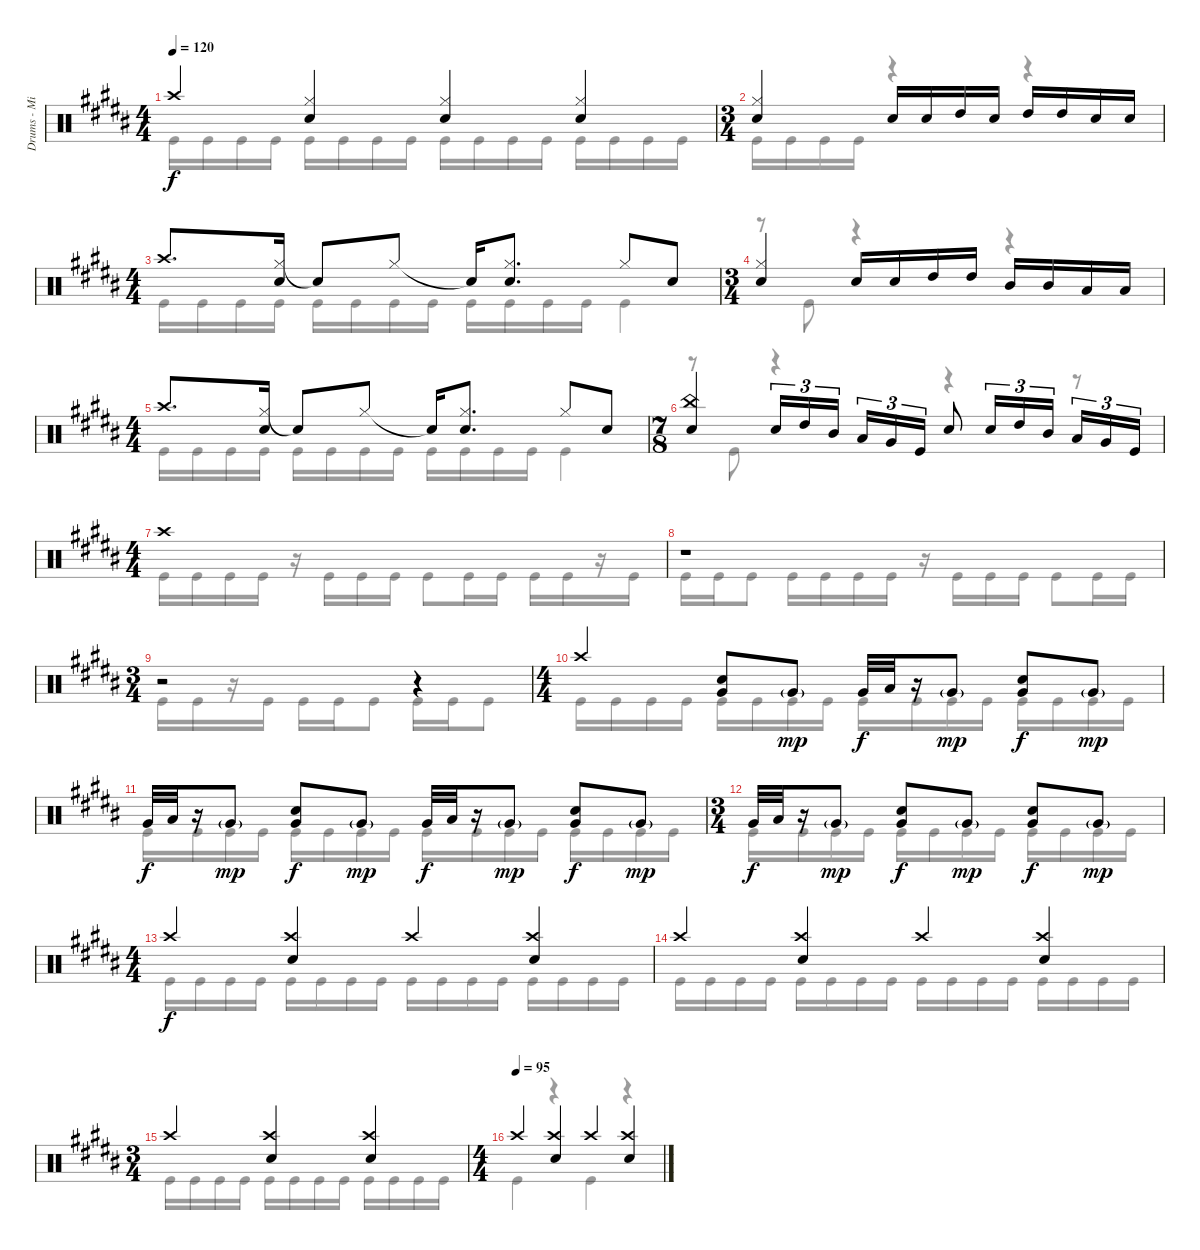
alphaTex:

\track ("Drums - Mike Portnoy" "Drums - Mi") {instrument percussion}
\staff {score}
\articulation defaults
\voice
\ts (4 4)
\tempo 120
\clef neutral
\ks b "Crash high (hit)".4{dy f}
("Hi-Hat (closed)" "Snare (hit) 2").4 ("Hi-Hat (closed)" "Snare (hit) 2").4 ("Hi-Hat (closed)" "Snare (hit) 2").4 |
\ts (3 4)
("Hi-Hat (closed)" "Snare (hit) 2").4 "Snare (hit) 2".16 "Snare (hit) 2".16 "High Tom (hit)".16 "Snare (hit) 2".16 "High Tom (hit)".16 "High Tom (hit)".16 "Snare (hit) 2".16 "Snare (hit) 2".16 |
\ts (4 4)
"Crash high (hit)".8{d} ("Hi-Hat (closed)" "Snare (hit) 2").16 "Snare (hit)"{t}.8 "Hi-Hat (closed)".8 "Snare (hit)"{t}.16 ("Hi-Hat (closed)" "Snare (hit) 2").8{d} "Hi-Hat (closed)".8 "Snare (hit) 2".8 |
\ts (3 4)
("Hi-Hat (closed)" "Snare (hit) 2").4 "Snare (hit) 2".16 "Snare (hit) 2".16 "High Tom (hit)".16 "High Tom (hit)".16 "Mid Tom (hit)".16 "Mid Tom (hit)".16 "Low Tom (hit)".16 "Low Tom (hit)".16 |
\ts (4 4)
"Crash high (hit)".8{d} ("Hi-Hat (closed)" "Snare (hit) 2").16 "Snare (hit)"{t}.8 "Hi-Hat (closed)".8 "Snare (hit)"{t}.16 ("Hi-Hat (closed)" "Snare (hit) 2").8{d} "Hi-Hat (closed)".8 "Snare (hit) 2".8 |
\ts (7 8)
("China (hit)" "Snare (hit) 2").4 "Snare (hit) 2".16{tu (3 2)} "High Tom (hit)".16{tu (3 2)} "Mid Tom (hit)".16{tu (3 2)} "Low Tom (hit)".16{tu (3 2)} "Very Low Tom (hit)".16{tu (3 2)} "Kick (hit)".16{tu (3 2)} "Snare (hit) 2".8 "Snare (hit) 2".16{tu (3 2)} "High Tom (hit)".16{tu (3 2)} "Mid Tom (hit)".16{tu (3 2)} "Low Tom (hit)".16{tu (3 2)} "Very Low Tom (hit)".16{tu (3 2)} "Kick (hit)".16{tu (3 2)} |
\ts (4 4)
"Crash high (hit)".1 |
r.1 |
\ts (3 4)
r.2 r.4 |
\ts (4 4)
"Crash high (hit)".4 ("Snare (hit) 2" "Very Low Tom (hit)").8 "Very Low Tom (hit)"{g}.8{dy mp} "Very Low Tom (hit)".32{dy f} "Low Tom (hit)".32 r.16 "Very Low Tom (hit)"{g}.8{dy mp} ("Snare (hit) 2" "Very Low Tom (hit)").8{dy f} "Very Low Tom (hit)"{g}.8{dy mp} |
"Very Low Tom (hit)".32{dy f} "Low Tom (hit)".32 r.16 "Very Low Tom (hit)"{g}.8{dy mp} ("Snare (hit) 2" "Very Low Tom (hit)").8{dy f} "Very Low Tom (hit)"{g}.8{dy mp} "Very Low Tom (hit)".32{dy f} "Low Tom (hit)".32 r.16 "Very Low Tom (hit)"{g}.8{dy mp} ("Snare (hit) 2" "Very Low Tom (hit)").8{dy f} "Very Low Tom (hit)"{g}.8{dy mp} |
\ts (3 4)
"Very Low Tom (hit)".32{dy f} "Low Tom (hit)".32 r.16 "Very Low Tom (hit)"{g}.8{dy mp} ("Snare (hit) 2" "Very Low Tom (hit)").8{dy f} "Very Low Tom (hit)"{g}.8{dy mp} ("Snare (hit) 2" "Very Low Tom (hit)").8{dy f} "Very Low Tom (hit)"{g}.8{dy mp} |
\ts (4 4)
"Crash high (hit)".4{dy f} ("Crash high (hit)" "Snare (hit) 2").4 "Crash high (hit)".4 ("Crash high (hit)" "Snare (hit) 2").4 |
"Crash high (hit)".4 ("Crash high (hit)" "Snare (hit) 2").4 "Crash high (hit)".4 ("Crash high (hit)" "Snare (hit) 2").4 |
\ts (3 4)
"Crash high (hit)".4 ("Crash high (hit)" "Snare (hit) 2").4 ("Crash high (hit)" "Snare (hit) 2").4 |
\ts (4 4)
\tempo (95)
"Crash high (hit)".4 ("Crash high (hit)" "Snare (hit) 2").4 "Crash high (hit)".4 ("Crash high (hit)" "Snare (hit) 2").4
\voice
\clef neutral
\ottava regular
\simile none
\ks b "Kick (hit)".16{dy f} "Kick (hit)".16 "Kick (hit)".16 "Kick (hit)".16 "Kick (hit)".16 "Kick (hit)".16 "Kick (hit)".16 "Kick (hit)".16 "Kick (hit)".16 "Kick (hit)".16 "Kick (hit)".16 "Kick (hit)".16 "Kick (hit)".16 "Kick (hit)".16 "Kick (hit)".16 "Kick (hit)".16
|
"Kick (hit)".16 "Kick (hit)".16 "Kick (hit)".16 "Kick (hit)".16 r.4 r.4 |
"Kick (hit)".16 "Kick (hit)".16 "Kick (hit)".16 "Kick (hit)".16 "Kick (hit)".16 "Kick (hit)".16 "Kick (hit)".16 "Kick (hit)".16 "Kick (hit)".16 "Kick (hit)".16 "Kick (hit)".16 "Kick (hit)".16 "Kick (hit)".4 |
r.8 "Kick (hit)".8 r.4 r.4 |
"Kick (hit)".16 "Kick (hit)".16 "Kick (hit)".16 "Kick (hit)".16 "Kick (hit)".16 "Kick (hit)".16 "Kick (hit)".16 "Kick (hit)".16 "Kick (hit)".16 "Kick (hit)".16 "Kick (hit)".16 "Kick (hit)".16 "Kick (hit)".4 |
r.8 "Kick (hit)".8 r.4 r.4 r.8 |
"Kick (hit)".16 "Kick (hit)".16 "Kick (hit)".16 "Kick (hit)".16 r.16 "Kick (hit)".16 "Kick (hit)".16 "Kick (hit)".16 "Kick (hit)".8 "Kick (hit)".16 "Kick (hit)".16 "Kick (hit)".16 "Kick (hit)".16 r.16 "Kick (hit)".16 |
"Kick (hit)".16 "Kick (hit)".16 "Kick (hit)".8 "Kick (hit)".16 "Kick (hit)".16 "Kick (hit)".16 "Kick (hit)".16 r.16 "Kick (hit)".16 "Kick (hit)".16 "Kick (hit)".16 "Kick (hit)".8 "Kick (hit)".16 "Kick (hit)".16 |
"Kick (hit)".16 "Kick (hit)".16 r.16 "Kick (hit)".16 "Kick (hit)".16 "Kick (hit)".16 "Kick (hit)".8 "Kick (hit)".16 "Kick (hit)".16 "Kick (hit)".8 |
"Kick (hit)".16 "Kick (hit)".16 "Kick (hit)".16 "Kick (hit)".16 "Kick (hit)".16 "Kick (hit)".16 "Kick (hit)".16 "Kick (hit)".16 "Kick (hit)".16 "Kick (hit)".16 "Kick (hit)".16 "Kick (hit)".16 "Kick (hit)".16 "Kick (hit)".16 "Kick (hit)".16 "Kick (hit)".16 |
"Kick (hit)".16 "Kick (hit)".16 "Kick (hit)".16 "Kick (hit)".16 "Kick (hit)".16 "Kick (hit)".16 "Kick (hit)".16 "Kick (hit)".16 "Kick (hit)".16 "Kick (hit)".16 "Kick (hit)".16 "Kick (hit)".16 "Kick (hit)".16 "Kick (hit)".16 "Kick (hit)".16 "Kick (hit)".16 |
"Kick (hit)".16 "Kick (hit)".16 "Kick (hit)".16 "Kick (hit)".16 "Kick (hit)".16 "Kick (hit)".16 "Kick (hit)".16 "Kick (hit)".16 "Kick (hit)".16 "Kick (hit)".16 "Kick (hit)".16 "Kick (hit)".16 |
"Kick (hit)".16 "Kick (hit)".16 "Kick (hit)".16 "Kick (hit)".16 "Kick (hit)".16 "Kick (hit)".16 "Kick (hit)".16 "Kick (hit)".16 "Kick (hit)".16 "Kick (hit)".16 "Kick (hit)".16 "Kick (hit)".16 "Kick (hit)".16 "Kick (hit)".16 "Kick (hit)".16 "Kick (hit)".16 |
"Kick (hit)".16 "Kick (hit)".16 "Kick (hit)".16 "Kick (hit)".16 "Kick (hit)".16 "Kick (hit)".16 "Kick (hit)".16 "Kick (hit)".16 "Kick (hit)".16 "Kick (hit)".16 "Kick (hit)".16 "Kick (hit)".16 "Kick (hit)".16 "Kick (hit)".16 "Kick (hit)".16 "Kick (hit)".16 |
"Kick (hit)".16 "Kick (hit)".16 "Kick (hit)".16 "Kick (hit)".16 "Kick (hit)".16 "Kick (hit)".16 "Kick (hit)".16 "Kick (hit)".16 "Kick (hit)".16 "Kick (hit)".16 "Kick (hit)".16 "Kick (hit)".16 |
"Kick (hit)".4 r.4 "Kick (hit)".4 r.4
